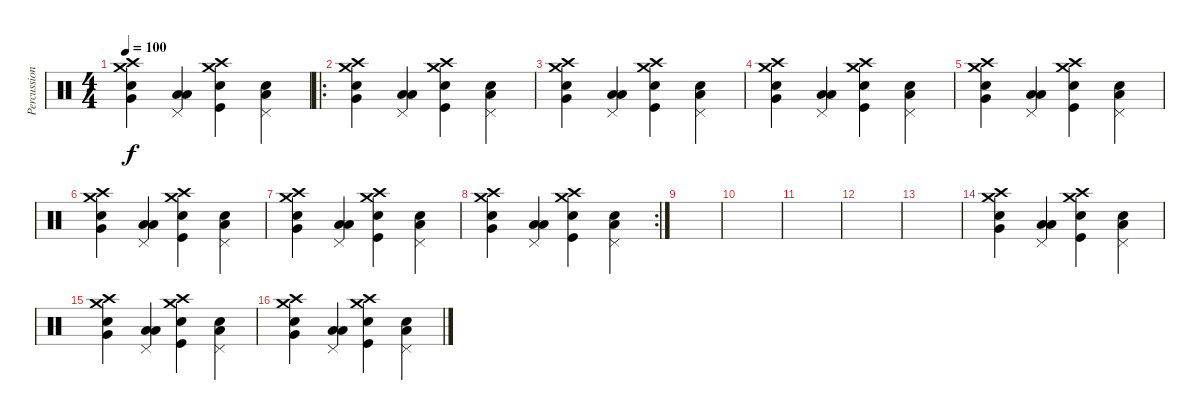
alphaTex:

\track ("Percussion" "Percussion") {instrument percussion}
\staff {score}
\articulation defaults
\ts (4 4)
\tempo 100
\clef neutral
\ks c
("Crash medium (hit)" "Crash high (hit)" "Electric Snare (hit)" "Very Low Tom (hit)").4{dy f} ("Pedal Hi-Hat (hit)" "Low Tom (hit)" "Low Floor Tom (hit)").4 ("Crash medium (hit)" "Crash high (hit)" "Electric Snare (hit)" "Kick (hit)").4 ("Pedal Hi-Hat (hit)" "Low Tom (hit)" "Electric Snare (hit)").4 |
\ro
("Crash medium (hit)" "Crash high (hit)" "Electric Snare (hit)" "Very Low Tom (hit)").4 ("Pedal Hi-Hat (hit)" "Low Tom (hit)" "Low Floor Tom (hit)").4 ("Crash medium (hit)" "Crash high (hit)" "Electric Snare (hit)" "Kick (hit)").4 ("Pedal Hi-Hat (hit)" "Low Tom (hit)" "Electric Snare (hit)").4 |
("Crash medium (hit)" "Crash high (hit)" "Electric Snare (hit)" "Very Low Tom (hit)").4 ("Pedal Hi-Hat (hit)" "Low Tom (hit)" "Low Floor Tom (hit)").4 ("Crash medium (hit)" "Crash high (hit)" "Electric Snare (hit)" "Kick (hit)").4 ("Pedal Hi-Hat (hit)" "Low Tom (hit)" "Electric Snare (hit)").4 |
("Crash medium (hit)" "Crash high (hit)" "Electric Snare (hit)" "Very Low Tom (hit)").4 ("Pedal Hi-Hat (hit)" "Low Tom (hit)" "Low Floor Tom (hit)").4 ("Crash medium (hit)" "Crash high (hit)" "Electric Snare (hit)" "Kick (hit)").4 ("Pedal Hi-Hat (hit)" "Low Tom (hit)" "Electric Snare (hit)").4 |
("Crash medium (hit)" "Crash high (hit)" "Electric Snare (hit)" "Very Low Tom (hit)").4 ("Pedal Hi-Hat (hit)" "Low Tom (hit)" "Low Floor Tom (hit)").4 ("Crash medium (hit)" "Crash high (hit)" "Electric Snare (hit)" "Kick (hit)").4 ("Pedal Hi-Hat (hit)" "Low Tom (hit)" "Electric Snare (hit)").4 |
("Crash medium (hit)" "Crash high (hit)" "Electric Snare (hit)" "Very Low Tom (hit)").4 ("Pedal Hi-Hat (hit)" "Low Tom (hit)" "Low Floor Tom (hit)").4 ("Crash medium (hit)" "Crash high (hit)" "Electric Snare (hit)" "Kick (hit)").4 ("Pedal Hi-Hat (hit)" "Low Tom (hit)" "Electric Snare (hit)").4 |
("Crash medium (hit)" "Crash high (hit)" "Electric Snare (hit)" "Very Low Tom (hit)").4 ("Pedal Hi-Hat (hit)" "Low Tom (hit)" "Low Floor Tom (hit)").4 ("Crash medium (hit)" "Crash high (hit)" "Electric Snare (hit)" "Kick (hit)").4 ("Pedal Hi-Hat (hit)" "Low Tom (hit)" "Electric Snare (hit)").4 |
\rc 2
("Crash medium (hit)" "Crash high (hit)" "Electric Snare (hit)" "Very Low Tom (hit)").4 ("Pedal Hi-Hat (hit)" "Low Tom (hit)" "Low Floor Tom (hit)").4 ("Crash medium (hit)" "Crash high (hit)" "Electric Snare (hit)" "Kick (hit)").4 ("Pedal Hi-Hat (hit)" "Low Tom (hit)" "Electric Snare (hit)").4 |
|
|
|
|
|
("Crash medium (hit)" "Crash high (hit)" "Electric Snare (hit)" "Very Low Tom (hit)").4 ("Pedal Hi-Hat (hit)" "Low Tom (hit)" "Low Floor Tom (hit)").4 ("Crash medium (hit)" "Crash high (hit)" "Electric Snare (hit)" "Kick (hit)").4 ("Pedal Hi-Hat (hit)" "Low Tom (hit)" "Electric Snare (hit)").4 |
("Crash medium (hit)" "Crash high (hit)" "Electric Snare (hit)" "Very Low Tom (hit)").4 ("Pedal Hi-Hat (hit)" "Low Tom (hit)" "Low Floor Tom (hit)").4 ("Crash medium (hit)" "Crash high (hit)" "Electric Snare (hit)" "Kick (hit)").4 ("Pedal Hi-Hat (hit)" "Low Tom (hit)" "Electric Snare (hit)").4 |
("Crash medium (hit)" "Crash high (hit)" "Electric Snare (hit)" "Very Low Tom (hit)").4 ("Pedal Hi-Hat (hit)" "Low Tom (hit)" "Low Floor Tom (hit)").4 ("Crash medium (hit)" "Crash high (hit)" "Electric Snare (hit)" "Kick (hit)").4 ("Pedal Hi-Hat (hit)" "Low Tom (hit)" "Electric Snare (hit)").4
